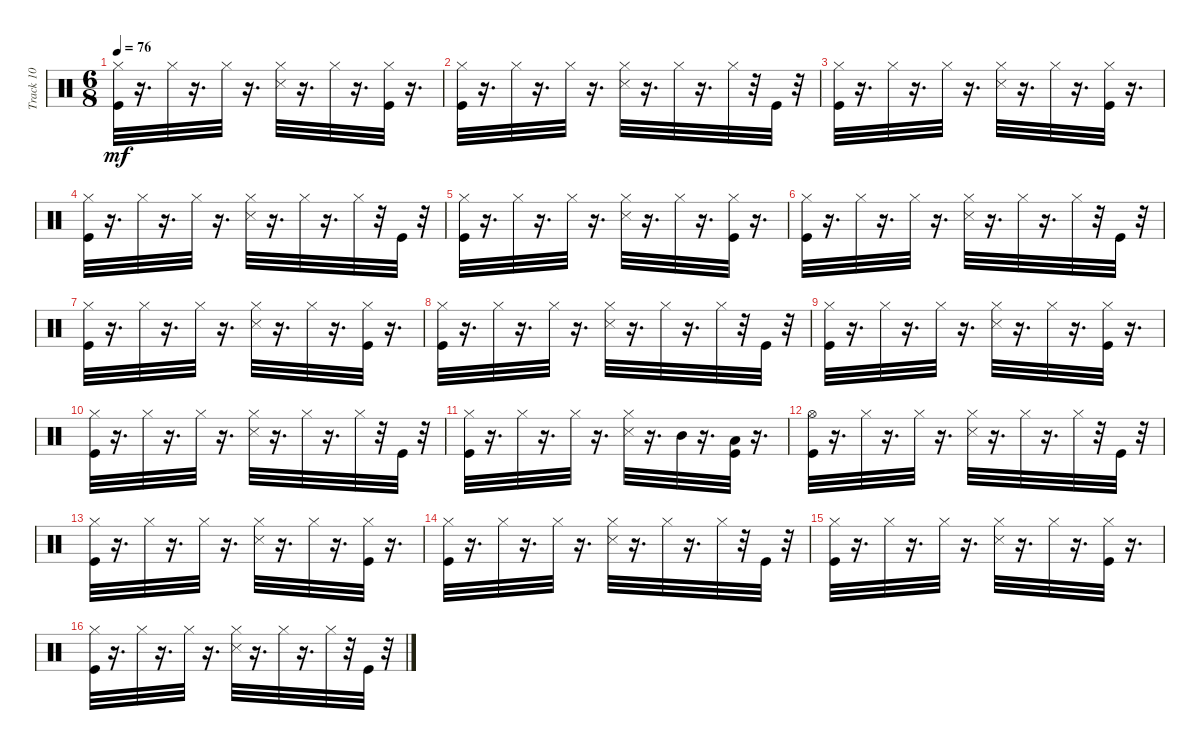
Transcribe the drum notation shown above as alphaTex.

\track ("Track 10" "Track 10") {instrument percussion}
\staff {score}
\articulation defaults
\ts (6 8)
\tempo 76
\clef neutral
\ks c
("Kick (hit)" "Hi-Hat (closed)").32{dy mf} r.16{d} "Hi-Hat (closed)".32 r.16{d} "Hi-Hat (closed)".32 r.16{d} ("Snare (side stick) 3" "Hi-Hat (closed)").32 r.16{d} "Hi-Hat (closed)".32 r.16{d} ("Kick (hit)" "Hi-Hat (closed)").32 r.16{d} |
("Kick (hit)" "Hi-Hat (closed)").32 r.16{d} "Hi-Hat (closed)".32 r.16{d} "Hi-Hat (closed)".32 r.16{d} ("Snare (side stick) 3" "Hi-Hat (closed)").32 r.16{d} "Hi-Hat (closed)".32 r.16{d} "Hi-Hat (closed)".32 r.32 "Kick (hit)".32 r.32 |
("Kick (hit)" "Hi-Hat (closed)").32 r.16{d} "Hi-Hat (closed)".32 r.16{d} "Hi-Hat (closed)".32 r.16{d} ("Snare (side stick) 3" "Hi-Hat (closed)").32 r.16{d} "Hi-Hat (closed)".32 r.16{d} ("Kick (hit)" "Hi-Hat (closed)").32 r.16{d} |
("Kick (hit)" "Hi-Hat (closed)").32 r.16{d} "Hi-Hat (closed)".32 r.16{d} "Hi-Hat (closed)".32 r.16{d} ("Snare (side stick) 3" "Hi-Hat (closed)").32 r.16{d} "Hi-Hat (closed)".32 r.16{d} "Hi-Hat (closed)".32 r.32 "Kick (hit)".32 r.32 |
("Kick (hit)" "Hi-Hat (closed)").32 r.16{d} "Hi-Hat (closed)".32 r.16{d} "Hi-Hat (closed)".32 r.16{d} ("Snare (side stick) 3" "Hi-Hat (closed)").32 r.16{d} "Hi-Hat (closed)".32 r.16{d} ("Kick (hit)" "Hi-Hat (closed)").32 r.16{d} |
("Kick (hit)" "Hi-Hat (closed)").32 r.16{d} "Hi-Hat (closed)".32 r.16{d} "Hi-Hat (closed)".32 r.16{d} ("Snare (side stick) 3" "Hi-Hat (closed)").32 r.16{d} "Hi-Hat (closed)".32 r.16{d} "Hi-Hat (closed)".32 r.32 "Kick (hit)".32 r.32 |
("Kick (hit)" "Hi-Hat (closed)").32 r.16{d} "Hi-Hat (closed)".32 r.16{d} "Hi-Hat (closed)".32 r.16{d} ("Snare (side stick) 3" "Hi-Hat (closed)").32 r.16{d} "Hi-Hat (closed)".32 r.16{d} ("Kick (hit)" "Hi-Hat (closed)").32 r.16{d} |
("Kick (hit)" "Hi-Hat (closed)").32 r.16{d} "Hi-Hat (closed)".32 r.16{d} "Hi-Hat (closed)".32 r.16{d} ("Snare (side stick) 3" "Hi-Hat (closed)").32 r.16{d} "Hi-Hat (closed)".32 r.16{d} "Hi-Hat (closed)".32 r.32 "Kick (hit)".32 r.32 |
("Kick (hit)" "Hi-Hat (closed)").32 r.16{d} "Hi-Hat (closed)".32 r.16{d} "Hi-Hat (closed)".32 r.16{d} ("Snare (side stick) 3" "Hi-Hat (closed)").32 r.16{d} "Hi-Hat (closed)".32 r.16{d} ("Kick (hit)" "Hi-Hat (closed)").32 r.16{d} |
("Kick (hit)" "Hi-Hat (closed)").32 r.16{d} "Hi-Hat (closed)".32 r.16{d} "Hi-Hat (closed)".32 r.16{d} ("Snare (side stick) 3" "Hi-Hat (closed)").32 r.16{d} "Hi-Hat (closed)".32 r.16{d} "Hi-Hat (closed)".32 r.32 "Kick (hit)".32 r.32 |
("Kick (hit)" "Hi-Hat (closed)").32 r.16{d} "Hi-Hat (closed)".32 r.16{d} "Hi-Hat (closed)".32 r.16{d} ("Snare (side stick) 3" "Hi-Hat (closed)").32 r.16{d} "Mid Tom (hit)".32 r.16{d} ("Kick (hit)" "Low Tom (hit)").32 r.16{d} |
("Kick (hit)" "Hi-Hat (open)").32 r.16{d} "Hi-Hat (closed)".32 r.16{d} "Hi-Hat (closed)".32 r.16{d} ("Snare (side stick) 3" "Hi-Hat (closed)").32 r.16{d} "Hi-Hat (closed)".32 r.16{d} "Hi-Hat (closed)".32 r.32 "Kick (hit)".32 r.32 |
("Kick (hit)" "Hi-Hat (closed)").32 r.16{d} "Hi-Hat (closed)".32 r.16{d} "Hi-Hat (closed)".32 r.16{d} ("Snare (side stick) 3" "Hi-Hat (closed)").32 r.16{d} "Hi-Hat (closed)".32 r.16{d} ("Kick (hit)" "Hi-Hat (closed)").32 r.16{d} |
("Kick (hit)" "Hi-Hat (closed)").32 r.16{d} "Hi-Hat (closed)".32 r.16{d} "Hi-Hat (closed)".32 r.16{d} ("Snare (side stick) 3" "Hi-Hat (closed)").32 r.16{d} "Hi-Hat (closed)".32 r.16{d} "Hi-Hat (closed)".32 r.32 "Kick (hit)".32 r.32 |
("Kick (hit)" "Hi-Hat (closed)").32 r.16{d} "Hi-Hat (closed)".32 r.16{d} "Hi-Hat (closed)".32 r.16{d} ("Snare (side stick) 3" "Hi-Hat (closed)").32 r.16{d} "Hi-Hat (closed)".32 r.16{d} ("Kick (hit)" "Hi-Hat (closed)").32 r.16{d} |
("Kick (hit)" "Hi-Hat (closed)").32 r.16{d} "Hi-Hat (closed)".32 r.16{d} "Hi-Hat (closed)".32 r.16{d} ("Snare (side stick) 3" "Hi-Hat (closed)").32 r.16{d} "Hi-Hat (closed)".32 r.16{d} "Hi-Hat (closed)".32 r.32 "Kick (hit)".32 r.32
